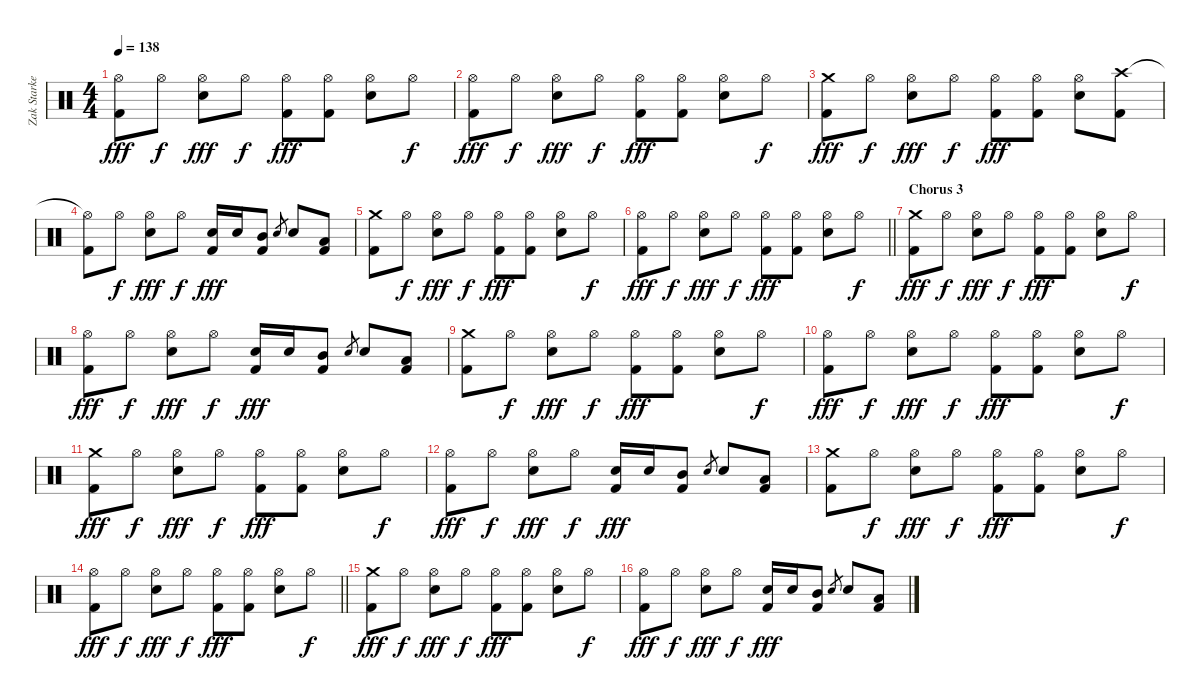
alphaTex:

\track ("Zak Starkey" "Zak Starke") {instrument percussion}
\staff {score}
\articulation defaults
\ts (4 4)
\tempo 138
\clef neutral
\ks c
("Hi-Hat (open)" "Kick (hit) 2").8{dy fff} "Hi-Hat (open)".8{dy f} ("Hi-Hat (open)" "Snare (hit) 2").8{dy fff} "Hi-Hat (open)".8{dy f} ("Hi-Hat (open)" "Kick (hit) 2").8{dy fff} ("Hi-Hat (open)" "Kick (hit) 2").8 ("Hi-Hat (open)" "Snare (hit) 2").8 "Hi-Hat (open)".8{dy f} |
("Hi-Hat (open)" "Kick (hit) 2").8{dy fff} "Hi-Hat (open)".8{dy f} ("Hi-Hat (open)" "Snare (hit) 2").8{dy fff} "Hi-Hat (open)".8{dy f} ("Hi-Hat (open)" "Kick (hit) 2").8{dy fff} ("Hi-Hat (open)" "Kick (hit) 2").8 ("Hi-Hat (open)" "Snare (hit) 2").8 "Hi-Hat (open)".8{dy f} |
("Crash medium (hit)" "Kick (hit) 2").8{dy fff} "Hi-Hat (open)".8{dy f} ("Hi-Hat (open)" "Snare (hit) 2").8{dy fff} "Hi-Hat (open)".8{dy f} ("Hi-Hat (open)" "Kick (hit) 2").8{dy fff} ("Hi-Hat (open)" "Kick (hit) 2").8 ("Hi-Hat (open)" "Snare (hit) 2").8 ("Crash high (hit)" "Kick (hit) 2").8 |
("Hi-Hat (open)"{t} "Kick (hit) 2").8 "Hi-Hat (open)".8{dy f} ("Hi-Hat (open)" "Snare (hit) 2").8{dy fff} "Hi-Hat (open)".8{dy f} ("Snare (hit) 2" "Kick (hit) 2").16{dy fff} "Snare (hit) 2".16 ("Mid Tom (hit)" "Kick (hit) 2").8 "Snare (hit) 2".8{gr} "Snare (hit) 2".8 ("Low Tom (hit)" "Kick (hit) 2").8 |
("Crash medium (hit)" "Kick (hit) 2").8 "Hi-Hat (open)".8{dy f} ("Hi-Hat (open)" "Snare (hit) 2").8{dy fff} "Hi-Hat (open)".8{dy f} ("Hi-Hat (open)" "Kick (hit) 2").8{dy fff} ("Hi-Hat (open)" "Kick (hit) 2").8 ("Hi-Hat (open)" "Snare (hit) 2").8 "Hi-Hat (open)".8{dy f} |
\barLineRight lightlight
("Hi-Hat (open)" "Kick (hit) 2").8{dy fff} "Hi-Hat (open)".8{dy f} ("Hi-Hat (open)" "Snare (hit) 2").8{dy fff} "Hi-Hat (open)".8{dy f} ("Hi-Hat (open)" "Kick (hit) 2").8{dy fff} ("Hi-Hat (open)" "Kick (hit) 2").8 ("Hi-Hat (open)" "Snare (hit) 2").8 "Hi-Hat (open)".8{dy f} |
\section ("" "Chorus 3")
("Crash medium (hit)" "Kick (hit) 2").8{dy fff} "Hi-Hat (open)".8{dy f} ("Hi-Hat (open)" "Snare (hit) 2").8{dy fff} "Hi-Hat (open)".8{dy f} ("Hi-Hat (open)" "Kick (hit) 2").8{dy fff} ("Hi-Hat (open)" "Kick (hit) 2").8 ("Hi-Hat (open)" "Snare (hit) 2").8 "Hi-Hat (open)".8{dy f} |
("Hi-Hat (open)" "Kick (hit) 2").8{dy fff} "Hi-Hat (open)".8{dy f} ("Hi-Hat (open)" "Snare (hit) 2").8{dy fff} "Hi-Hat (open)".8{dy f} ("Snare (hit) 2" "Kick (hit) 2").16{dy fff} "Snare (hit) 2".16 ("Mid Tom (hit)" "Kick (hit) 2").8 "Snare (hit) 2".8{gr} "Snare (hit) 2".8 ("Low Tom (hit)" "Kick (hit) 2").8 |
("Crash medium (hit)" "Kick (hit) 2").8 "Hi-Hat (open)".8{dy f} ("Hi-Hat (open)" "Snare (hit) 2").8{dy fff} "Hi-Hat (open)".8{dy f} ("Hi-Hat (open)" "Kick (hit) 2").8{dy fff} ("Hi-Hat (open)" "Kick (hit) 2").8 ("Hi-Hat (open)" "Snare (hit) 2").8 "Hi-Hat (open)".8{dy f} |
("Hi-Hat (open)" "Kick (hit) 2").8{dy fff} "Hi-Hat (open)".8{dy f} ("Hi-Hat (open)" "Snare (hit) 2").8{dy fff} "Hi-Hat (open)".8{dy f} ("Hi-Hat (open)" "Kick (hit) 2").8{dy fff} ("Hi-Hat (open)" "Kick (hit) 2").8 ("Hi-Hat (open)" "Snare (hit) 2").8 "Hi-Hat (open)".8{dy f} |
("Crash medium (hit)" "Kick (hit) 2").8{dy fff} "Hi-Hat (open)".8{dy f} ("Hi-Hat (open)" "Snare (hit) 2").8{dy fff} "Hi-Hat (open)".8{dy f} ("Hi-Hat (open)" "Kick (hit) 2").8{dy fff} ("Hi-Hat (open)" "Kick (hit) 2").8 ("Hi-Hat (open)" "Snare (hit) 2").8 "Hi-Hat (open)".8{dy f} |
("Hi-Hat (open)" "Kick (hit) 2").8{dy fff} "Hi-Hat (open)".8{dy f} ("Hi-Hat (open)" "Snare (hit) 2").8{dy fff} "Hi-Hat (open)".8{dy f} ("Snare (hit) 2" "Kick (hit) 2").16{dy fff} "Snare (hit) 2".16 ("Mid Tom (hit)" "Kick (hit) 2").8 "Snare (hit) 2".8{gr} "Snare (hit) 2".8 ("Low Tom (hit)" "Kick (hit) 2").8 |
("Crash medium (hit)" "Kick (hit) 2").8 "Hi-Hat (open)".8{dy f} ("Hi-Hat (open)" "Snare (hit) 2").8{dy fff} "Hi-Hat (open)".8{dy f} ("Hi-Hat (open)" "Kick (hit) 2").8{dy fff} ("Hi-Hat (open)" "Kick (hit) 2").8 ("Hi-Hat (open)" "Snare (hit) 2").8 "Hi-Hat (open)".8{dy f} |
\barLineRight lightlight
("Hi-Hat (open)" "Kick (hit) 2").8{dy fff} "Hi-Hat (open)".8{dy f} ("Hi-Hat (open)" "Snare (hit) 2").8{dy fff} "Hi-Hat (open)".8{dy f} ("Hi-Hat (open)" "Kick (hit) 2").8{dy fff} ("Hi-Hat (open)" "Kick (hit) 2").8 ("Hi-Hat (open)" "Snare (hit) 2").8 "Hi-Hat (open)".8{dy f} |
("Crash medium (hit)" "Kick (hit) 2").8{dy fff} "Hi-Hat (open)".8{dy f} ("Hi-Hat (open)" "Snare (hit) 2").8{dy fff} "Hi-Hat (open)".8{dy f} ("Hi-Hat (open)" "Kick (hit) 2").8{dy fff} ("Hi-Hat (open)" "Kick (hit) 2").8 ("Hi-Hat (open)" "Snare (hit) 2").8 "Hi-Hat (open)".8{dy f} |
("Hi-Hat (open)" "Kick (hit) 2").8{dy fff} "Hi-Hat (open)".8{dy f} ("Hi-Hat (open)" "Snare (hit) 2").8{dy fff} "Hi-Hat (open)".8{dy f} ("Snare (hit) 2" "Kick (hit) 2").16{dy fff} "Snare (hit) 2".16 ("Mid Tom (hit)" "Kick (hit) 2").8 "Snare (hit) 2".8{gr} "Snare (hit) 2".8 ("Low Tom (hit)" "Kick (hit) 2").8
